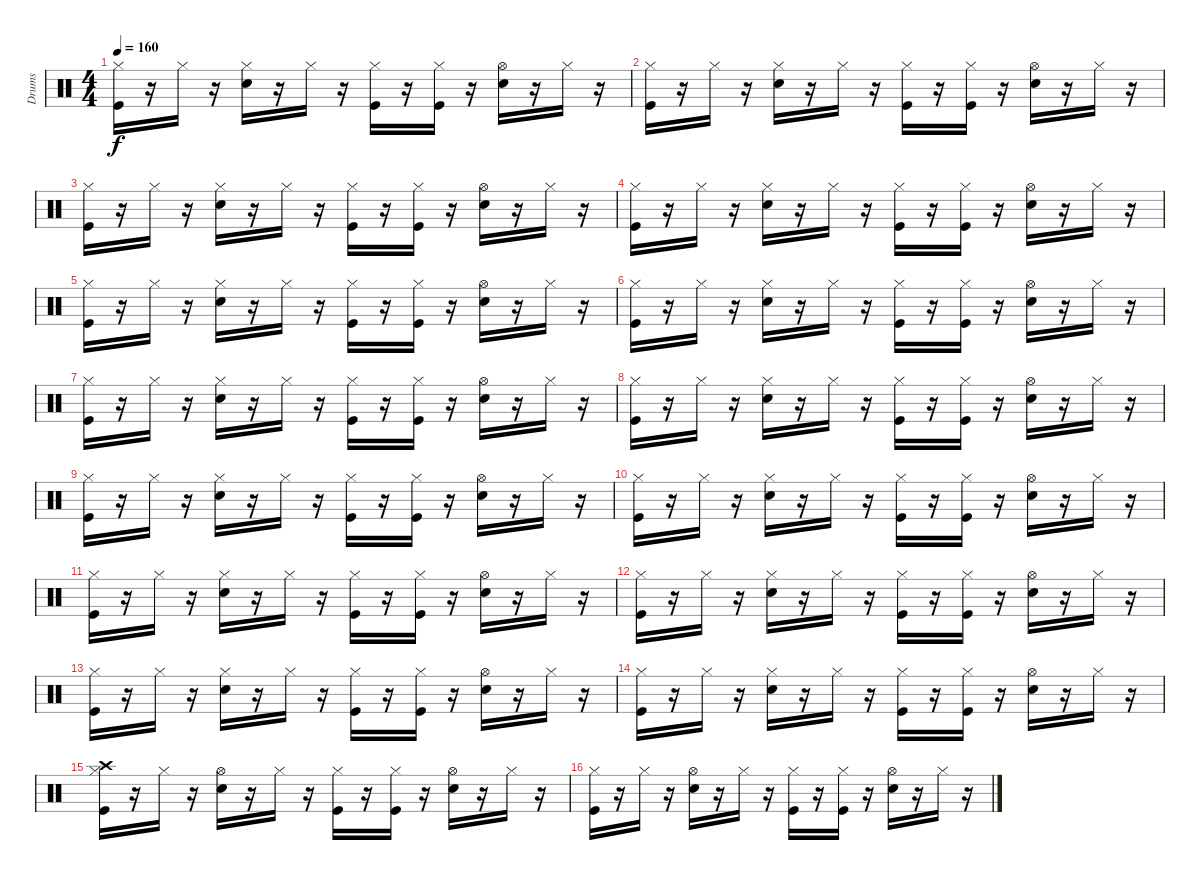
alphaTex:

\track ("Drums" "Drums") {instrument percussion}
\staff {score}
\articulation defaults
\ts (4 4)
\tempo 160
\clef neutral
\ks c
("Hi-Hat (closed)" "Kick (hit)").16{dy f} r.16 "Hi-Hat (closed)".16 r.16 ("Hi-Hat (closed)" "Snare (hit) 2").16 r.16 "Hi-Hat (closed)".16 r.16 ("Hi-Hat (closed)" "Kick (hit)").16 r.16 ("Kick (hit)" "Hi-Hat (closed)").16 r.16 ("Hi-Hat (open)" "Snare (hit) 2").16 r.16 "Hi-Hat (closed)".16 r.16 |
("Hi-Hat (closed)" "Kick (hit)").16 r.16 "Hi-Hat (closed)".16 r.16 ("Hi-Hat (closed)" "Snare (hit) 2").16 r.16 "Hi-Hat (closed)".16 r.16 ("Hi-Hat (closed)" "Kick (hit)").16 r.16 ("Kick (hit)" "Hi-Hat (closed)").16 r.16 ("Hi-Hat (open)" "Snare (hit) 2").16 r.16 "Hi-Hat (closed)".16 r.16 |
("Hi-Hat (closed)" "Kick (hit)").16 r.16 "Hi-Hat (closed)".16 r.16 ("Hi-Hat (closed)" "Snare (hit) 2").16 r.16 "Hi-Hat (closed)".16 r.16 ("Hi-Hat (closed)" "Kick (hit)").16 r.16 ("Kick (hit)" "Hi-Hat (closed)").16 r.16 ("Hi-Hat (open)" "Snare (hit) 2").16 r.16 "Hi-Hat (closed)".16 r.16 |
("Hi-Hat (closed)" "Kick (hit)").16 r.16 "Hi-Hat (closed)".16 r.16 ("Hi-Hat (closed)" "Snare (hit) 2").16 r.16 "Hi-Hat (closed)".16 r.16 ("Hi-Hat (closed)" "Kick (hit)").16 r.16 ("Kick (hit)" "Hi-Hat (closed)").16 r.16 ("Hi-Hat (open)" "Snare (hit) 2").16 r.16 "Hi-Hat (closed)".16 r.16 |
("Hi-Hat (closed)" "Kick (hit)").16 r.16 "Hi-Hat (closed)".16 r.16 ("Hi-Hat (closed)" "Snare (hit) 2").16 r.16 "Hi-Hat (closed)".16 r.16 ("Hi-Hat (closed)" "Kick (hit)").16 r.16 ("Kick (hit)" "Hi-Hat (closed)").16 r.16 ("Hi-Hat (open)" "Snare (hit) 2").16 r.16 "Hi-Hat (closed)".16 r.16 |
("Hi-Hat (closed)" "Kick (hit)").16 r.16 "Hi-Hat (closed)".16 r.16 ("Hi-Hat (closed)" "Snare (hit) 2").16 r.16 "Hi-Hat (closed)".16 r.16 ("Hi-Hat (closed)" "Kick (hit)").16 r.16 ("Kick (hit)" "Hi-Hat (closed)").16 r.16 ("Hi-Hat (open)" "Snare (hit) 2").16 r.16 "Hi-Hat (closed)".16 r.16 |
("Hi-Hat (closed)" "Kick (hit)").16 r.16 "Hi-Hat (closed)".16 r.16 ("Hi-Hat (closed)" "Snare (hit) 2").16 r.16 "Hi-Hat (closed)".16 r.16 ("Hi-Hat (closed)" "Kick (hit)").16 r.16 ("Kick (hit)" "Hi-Hat (closed)").16 r.16 ("Hi-Hat (open)" "Snare (hit) 2").16 r.16 "Hi-Hat (closed)".16 r.16 |
("Hi-Hat (closed)" "Kick (hit)").16 r.16 "Hi-Hat (closed)".16 r.16 ("Hi-Hat (closed)" "Snare (hit) 2").16 r.16 "Hi-Hat (closed)".16 r.16 ("Hi-Hat (closed)" "Kick (hit)").16 r.16 ("Kick (hit)" "Hi-Hat (closed)").16 r.16 ("Hi-Hat (open)" "Snare (hit) 2").16 r.16 "Hi-Hat (closed)".16 r.16 |
("Hi-Hat (closed)" "Kick (hit)").16 r.16 "Hi-Hat (closed)".16 r.16 ("Hi-Hat (closed)" "Snare (hit) 2").16 r.16 "Hi-Hat (closed)".16 r.16 ("Hi-Hat (closed)" "Kick (hit)").16 r.16 ("Kick (hit)" "Hi-Hat (closed)").16 r.16 ("Hi-Hat (open)" "Snare (hit) 2").16 r.16 "Hi-Hat (closed)".16 r.16 |
("Hi-Hat (closed)" "Kick (hit)").16 r.16 "Hi-Hat (closed)".16 r.16 ("Hi-Hat (closed)" "Snare (hit) 2").16 r.16 "Hi-Hat (closed)".16 r.16 ("Hi-Hat (closed)" "Kick (hit)").16 r.16 ("Kick (hit)" "Hi-Hat (closed)").16 r.16 ("Hi-Hat (open)" "Snare (hit) 2").16 r.16 "Hi-Hat (closed)".16 r.16 |
("Hi-Hat (closed)" "Kick (hit)").16 r.16 "Hi-Hat (closed)".16 r.16 ("Hi-Hat (closed)" "Snare (hit) 2").16 r.16 "Hi-Hat (closed)".16 r.16 ("Hi-Hat (closed)" "Kick (hit)").16 r.16 ("Kick (hit)" "Hi-Hat (closed)").16 r.16 ("Hi-Hat (open)" "Snare (hit) 2").16 r.16 "Hi-Hat (closed)".16 r.16 |
("Hi-Hat (closed)" "Kick (hit)").16 r.16 "Hi-Hat (closed)".16 r.16 ("Hi-Hat (closed)" "Snare (hit) 2").16 r.16 "Hi-Hat (closed)".16 r.16 ("Hi-Hat (closed)" "Kick (hit)").16 r.16 ("Kick (hit)" "Hi-Hat (closed)").16 r.16 ("Hi-Hat (open)" "Snare (hit) 2").16 r.16 "Hi-Hat (closed)".16 r.16 |
("Hi-Hat (closed)" "Kick (hit)").16 r.16 "Hi-Hat (closed)".16 r.16 ("Hi-Hat (closed)" "Snare (hit) 2").16 r.16 "Hi-Hat (closed)".16 r.16 ("Hi-Hat (closed)" "Kick (hit)").16 r.16 ("Kick (hit)" "Hi-Hat (closed)").16 r.16 ("Hi-Hat (open)" "Snare (hit) 2").16 r.16 "Hi-Hat (closed)".16 r.16 |
("Hi-Hat (closed)" "Kick (hit)").16 r.16 "Hi-Hat (closed)".16 r.16 ("Hi-Hat (closed)" "Snare (hit) 2").16 r.16 "Hi-Hat (closed)".16 r.16 ("Hi-Hat (closed)" "Kick (hit)").16 r.16 ("Kick (hit)" "Hi-Hat (closed)").16 r.16 ("Hi-Hat (open)" "Snare (hit) 2").16 r.16 "Hi-Hat (closed)".16 r.16 |
("Crash high (hit)" "Hi-Hat (closed)" "Kick (hit)").16 r.16 "Hi-Hat (closed)".16 r.16 ("Hi-Hat (open)" "Snare (hit) 2").16 r.16 "Hi-Hat (closed)".16 r.16 ("Hi-Hat (closed)" "Kick (hit)").16 r.16 ("Kick (hit)" "Hi-Hat (closed)").16 r.16 ("Hi-Hat (open)" "Snare (hit) 2").16 r.16 "Hi-Hat (closed)".16 r.16 |
("Hi-Hat (closed)" "Kick (hit)").16 r.16 "Hi-Hat (closed)".16 r.16 ("Hi-Hat (open)" "Snare (hit) 2").16 r.16 "Hi-Hat (closed)".16 r.16 ("Hi-Hat (closed)" "Kick (hit)").16 r.16 ("Kick (hit)" "Hi-Hat (closed)").16 r.16 ("Hi-Hat (open)" "Snare (hit) 2").16 r.16 "Hi-Hat (closed)".16 r.16
